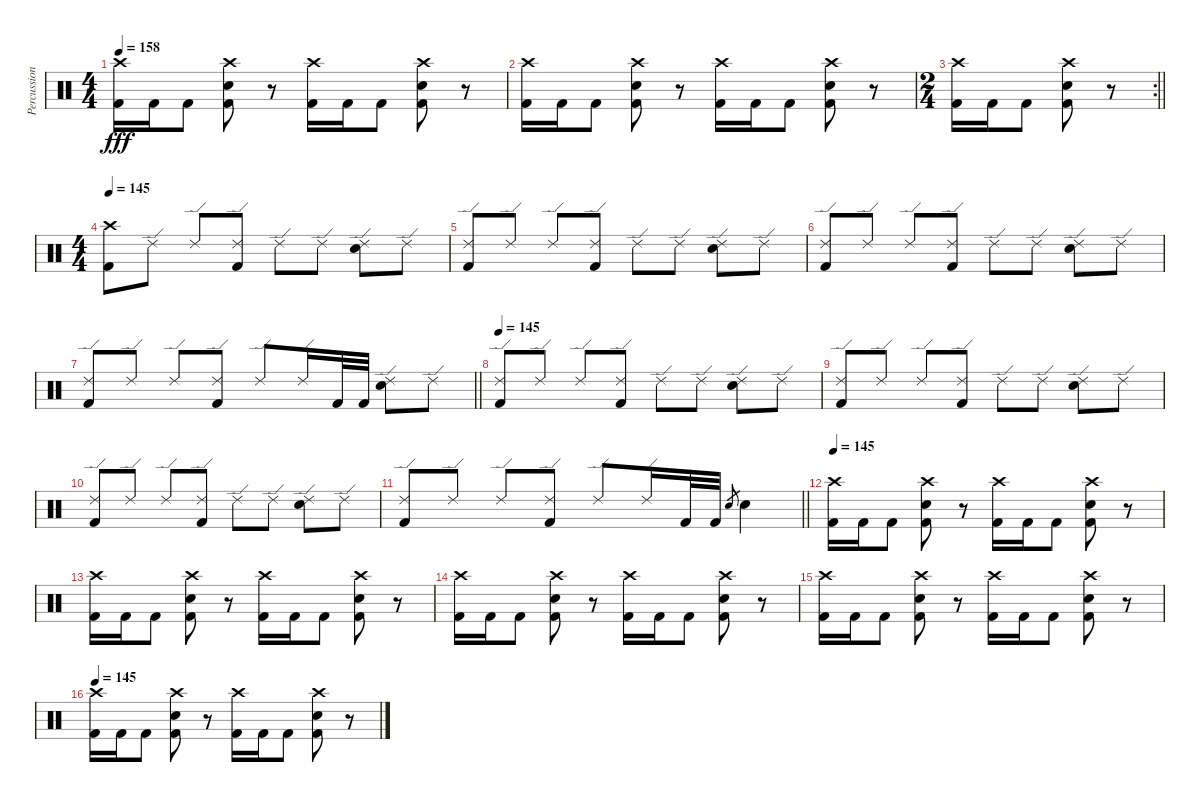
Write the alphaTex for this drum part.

\track ("Percussion" "Percussion") {instrument percussion}
\staff {score}
\articulation defaults
\ts (4 4)
\tempo 158
\clef neutral
\ks c
("Crash high (hit)" "Kick (hit) 2").16{dy fff} "Kick (hit) 2".16 "Kick (hit) 2".8 ("Crash high (hit)" "Snare (hit) 2" "Kick (hit) 2").8 r.8 ("Crash high (hit)" "Kick (hit) 2").16 "Kick (hit) 2".16 "Kick (hit) 2".8 ("Crash high (hit)" "Snare (hit) 2" "Kick (hit) 2").8 r.8 |
("Crash high (hit)" "Kick (hit) 2").16 "Kick (hit) 2".16 "Kick (hit) 2".8 ("Crash high (hit)" "Snare (hit) 2" "Kick (hit) 2").8 r.8 ("Crash high (hit)" "Kick (hit) 2").16 "Kick (hit) 2".16 "Kick (hit) 2".8 ("Crash high (hit)" "Snare (hit) 2" "Kick (hit) 2").8 r.8 |
\rc 2
\ts (2 4)
\barLineRight lightlight
("Crash high (hit)" "Kick (hit) 2").16 "Kick (hit) 2".16 "Kick (hit) 2".8 ("Crash high (hit)" "Snare (hit) 2" "Kick (hit) 2").8 r.8 |
\ts (4 4)
\section ("" "")
\tempo 145
("Crash high (hit)" "Kick (hit) 2").8 "Ride (edge) 2".8 "Ride (edge) 2".8 ("Ride (edge) 2" "Kick (hit) 2").8 "Ride (edge) 2".8 "Ride (edge) 2".8 ("Ride (edge) 2" "Snare (hit) 2").8 "Ride (edge) 2".8 |
("Ride (edge) 2" "Kick (hit) 2").8 "Ride (edge) 2".8 "Ride (edge) 2".8 ("Ride (edge) 2" "Kick (hit) 2").8 "Ride (edge) 2".8 "Ride (edge) 2".8 ("Ride (edge) 2" "Snare (hit) 2").8 "Ride (edge) 2".8 |
("Ride (edge) 2" "Kick (hit) 2").8 "Ride (edge) 2".8 "Ride (edge) 2".8 ("Ride (edge) 2" "Kick (hit) 2").8 "Ride (edge) 2".8 "Ride (edge) 2".8 ("Ride (edge) 2" "Snare (hit) 2").8 "Ride (edge) 2".8 |
\barLineRight lightlight
("Ride (edge) 2" "Kick (hit) 2").8 "Ride (edge) 2".8 "Ride (edge) 2".8 ("Ride (edge) 2" "Kick (hit) 2").8 "Ride (edge) 2".8 "Ride (edge) 2".16 "Kick (hit) 2".32 "Kick (hit) 2".32 ("Ride (edge) 2" "Snare (hit) 2").8 "Ride (edge) 2".8 |
\tempo 145
("Ride (edge) 2" "Kick (hit) 2").8 "Ride (edge) 2".8 "Ride (edge) 2".8 ("Ride (edge) 2" "Kick (hit) 2").8 "Ride (edge) 2".8 "Ride (edge) 2".8 ("Ride (edge) 2" "Snare (hit) 2").8 "Ride (edge) 2".8 |
("Ride (edge) 2" "Kick (hit) 2").8 "Ride (edge) 2".8 "Ride (edge) 2".8 ("Ride (edge) 2" "Kick (hit) 2").8 "Ride (edge) 2".8 "Ride (edge) 2".8 ("Ride (edge) 2" "Snare (hit) 2").8 "Ride (edge) 2".8 |
("Ride (edge) 2" "Kick (hit) 2").8 "Ride (edge) 2".8 "Ride (edge) 2".8 ("Ride (edge) 2" "Kick (hit) 2").8 "Ride (edge) 2".8 "Ride (edge) 2".8 ("Ride (edge) 2" "Snare (hit) 2").8 "Ride (edge) 2".8 |
\barLineRight lightlight
("Ride (edge) 2" "Kick (hit) 2").8 "Ride (edge) 2".8 "Ride (edge) 2".8 ("Ride (edge) 2" "Kick (hit) 2").8 "Ride (edge) 2".8 "Ride (edge) 2".16 "Kick (hit) 2".32 "Kick (hit) 2".32 "Snare (hit) 2".8{gr} "Snare (hit) 2".4 |
\tempo 145
("Crash high (hit)" "Kick (hit) 2").16 "Kick (hit) 2".16 "Kick (hit) 2".8 ("Crash high (hit)" "Snare (hit) 2" "Kick (hit) 2").8 r.8 ("Crash high (hit)" "Kick (hit) 2").16 "Kick (hit) 2".16 "Kick (hit) 2".8 ("Crash high (hit)" "Snare (hit) 2" "Kick (hit) 2").8 r.8 |
("Crash high (hit)" "Kick (hit) 2").16 "Kick (hit) 2".16 "Kick (hit) 2".8 ("Crash high (hit)" "Snare (hit) 2" "Kick (hit) 2").8 r.8 ("Crash high (hit)" "Kick (hit) 2").16 "Kick (hit) 2".16 "Kick (hit) 2".8 ("Crash high (hit)" "Snare (hit) 2" "Kick (hit) 2").8 r.8 |
("Crash high (hit)" "Kick (hit) 2").16 "Kick (hit) 2".16 "Kick (hit) 2".8 ("Crash high (hit)" "Snare (hit) 2" "Kick (hit) 2").8 r.8 ("Crash high (hit)" "Kick (hit) 2").16 "Kick (hit) 2".16 "Kick (hit) 2".8 ("Crash high (hit)" "Snare (hit) 2" "Kick (hit) 2").8 r.8 |
("Crash high (hit)" "Kick (hit) 2").16 "Kick (hit) 2".16 "Kick (hit) 2".8 ("Crash high (hit)" "Snare (hit) 2" "Kick (hit) 2").8 r.8 ("Crash high (hit)" "Kick (hit) 2").16 "Kick (hit) 2".16 "Kick (hit) 2".8 ("Crash high (hit)" "Snare (hit) 2" "Kick (hit) 2").8 r.8 |
\tempo 145
("Crash high (hit)" "Kick (hit) 2").16 "Kick (hit) 2".16 "Kick (hit) 2".8 ("Crash high (hit)" "Snare (hit) 2" "Kick (hit) 2").8 r.8 ("Crash high (hit)" "Kick (hit) 2").16 "Kick (hit) 2".16 "Kick (hit) 2".8 ("Crash high (hit)" "Snare (hit) 2" "Kick (hit) 2").8 r.8
